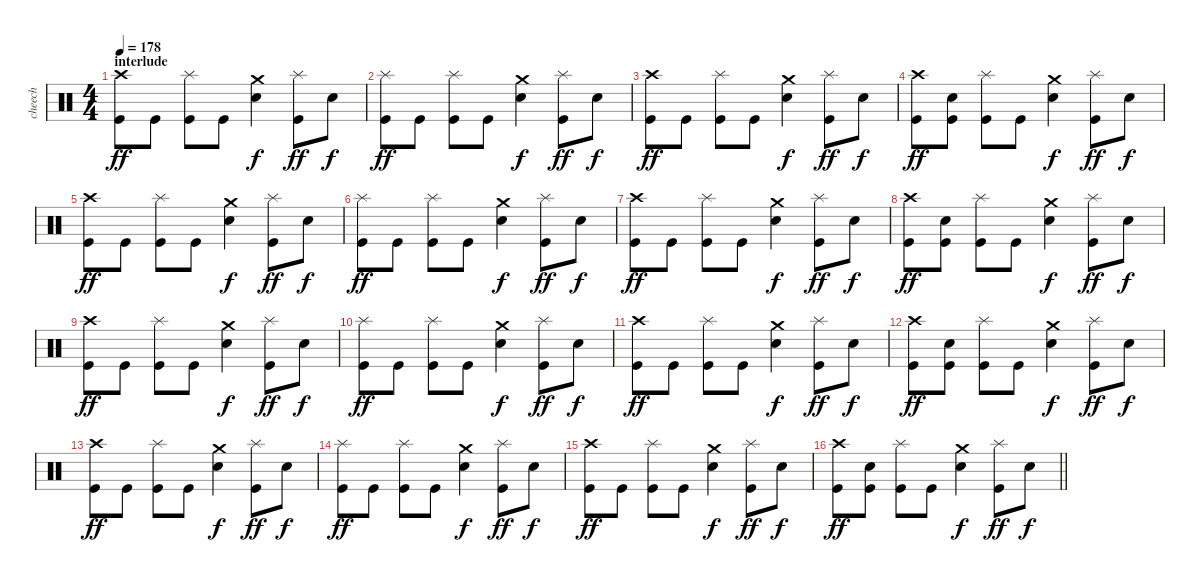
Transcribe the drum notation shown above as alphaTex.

\track ("cheech" "cheech") {solo instrument percussion}
\staff {score}
\articulation defaults
\ts (4 4)
\section ("" "interlude")
\tempo 178
\clef neutral
\ks c
("Crash high (hit)" "Kick (hit)").8{dy ff} "Kick (hit)".8 ("Splash (hit)" "Kick (hit)").8 "Kick (hit)".8 ("Crash medium (hit)" "Electric Snare (hit)").4{dy f} ("Splash (hit)" "Kick (hit)").8{dy ff} "Electric Snare (hit)".8{dy f} |
("Splash (hit)" "Kick (hit)").8{dy ff} "Kick (hit)".8 ("Splash (hit)" "Kick (hit)").8 "Kick (hit)".8 ("Crash medium (hit)" "Electric Snare (hit)").4{dy f} ("Splash (hit)" "Kick (hit)").8{dy ff} "Electric Snare (hit)".8{dy f} |
("Crash high (hit)" "Kick (hit)").8{dy ff} "Kick (hit)".8 ("Splash (hit)" "Kick (hit)").8 "Kick (hit)".8 ("Crash medium (hit)" "Electric Snare (hit)").4{dy f} ("Splash (hit)" "Kick (hit)").8{dy ff} "Electric Snare (hit)".8{dy f} |
("Crash high (hit)" "Kick (hit)").8{dy ff} ("Electric Snare (hit)" "Kick (hit)").8 ("Splash (hit)" "Kick (hit)").8 "Kick (hit)".8 ("Crash medium (hit)" "Electric Snare (hit)").4{dy f} ("Splash (hit)" "Kick (hit)").8{dy ff} "Electric Snare (hit)".8{dy f} |
("Crash high (hit)" "Kick (hit)").8{dy ff} "Kick (hit)".8 ("Splash (hit)" "Kick (hit)").8 "Kick (hit)".8 ("Crash medium (hit)" "Electric Snare (hit)").4{dy f} ("Splash (hit)" "Kick (hit)").8{dy ff} "Electric Snare (hit)".8{dy f} |
("Splash (hit)" "Kick (hit)").8{dy ff} "Kick (hit)".8 ("Splash (hit)" "Kick (hit)").8 "Kick (hit)".8 ("Crash medium (hit)" "Electric Snare (hit)").4{dy f} ("Splash (hit)" "Kick (hit)").8{dy ff} "Electric Snare (hit)".8{dy f} |
("Crash high (hit)" "Kick (hit)").8{dy ff} "Kick (hit)".8 ("Splash (hit)" "Kick (hit)").8 "Kick (hit)".8 ("Crash medium (hit)" "Electric Snare (hit)").4{dy f} ("Splash (hit)" "Kick (hit)").8{dy ff} "Electric Snare (hit)".8{dy f} |
("Crash high (hit)" "Kick (hit)").8{dy ff} ("Electric Snare (hit)" "Kick (hit)").8 ("Splash (hit)" "Kick (hit)").8 "Kick (hit)".8 ("Crash medium (hit)" "Electric Snare (hit)").4{dy f} ("Splash (hit)" "Kick (hit)").8{dy ff} "Electric Snare (hit)".8{dy f} |
("Crash high (hit)" "Kick (hit)").8{dy ff} "Kick (hit)".8 ("Splash (hit)" "Kick (hit)").8 "Kick (hit)".8 ("Crash medium (hit)" "Electric Snare (hit)").4{dy f} ("Splash (hit)" "Kick (hit)").8{dy ff} "Electric Snare (hit)".8{dy f} |
("Splash (hit)" "Kick (hit)").8{dy ff} "Kick (hit)".8 ("Splash (hit)" "Kick (hit)").8 "Kick (hit)".8 ("Crash medium (hit)" "Electric Snare (hit)").4{dy f} ("Splash (hit)" "Kick (hit)").8{dy ff} "Electric Snare (hit)".8{dy f} |
("Crash high (hit)" "Kick (hit)").8{dy ff} "Kick (hit)".8 ("Splash (hit)" "Kick (hit)").8 "Kick (hit)".8 ("Crash medium (hit)" "Electric Snare (hit)").4{dy f} ("Splash (hit)" "Kick (hit)").8{dy ff} "Electric Snare (hit)".8{dy f} |
("Crash high (hit)" "Kick (hit)").8{dy ff} ("Electric Snare (hit)" "Kick (hit)").8 ("Splash (hit)" "Kick (hit)").8 "Kick (hit)".8 ("Crash medium (hit)" "Electric Snare (hit)").4{dy f} ("Splash (hit)" "Kick (hit)").8{dy ff} "Electric Snare (hit)".8{dy f} |
("Crash high (hit)" "Kick (hit)").8{dy ff} "Kick (hit)".8 ("Splash (hit)" "Kick (hit)").8 "Kick (hit)".8 ("Crash medium (hit)" "Electric Snare (hit)").4{dy f} ("Splash (hit)" "Kick (hit)").8{dy ff} "Electric Snare (hit)".8{dy f} |
("Splash (hit)" "Kick (hit)").8{dy ff} "Kick (hit)".8 ("Splash (hit)" "Kick (hit)").8 "Kick (hit)".8 ("Crash medium (hit)" "Electric Snare (hit)").4{dy f} ("Splash (hit)" "Kick (hit)").8{dy ff} "Electric Snare (hit)".8{dy f} |
("Crash high (hit)" "Kick (hit)").8{dy ff} "Kick (hit)".8 ("Splash (hit)" "Kick (hit)").8 "Kick (hit)".8 ("Crash medium (hit)" "Electric Snare (hit)").4{dy f} ("Splash (hit)" "Kick (hit)").8{dy ff} "Electric Snare (hit)".8{dy f} |
\barLineRight lightlight
("Crash high (hit)" "Kick (hit)").8{dy ff} ("Electric Snare (hit)" "Kick (hit)").8 ("Splash (hit)" "Kick (hit)").8 "Kick (hit)".8 ("Crash medium (hit)" "Electric Snare (hit)").4{dy f} ("Splash (hit)" "Kick (hit)").8{dy ff} "Electric Snare (hit)".8{dy f}
